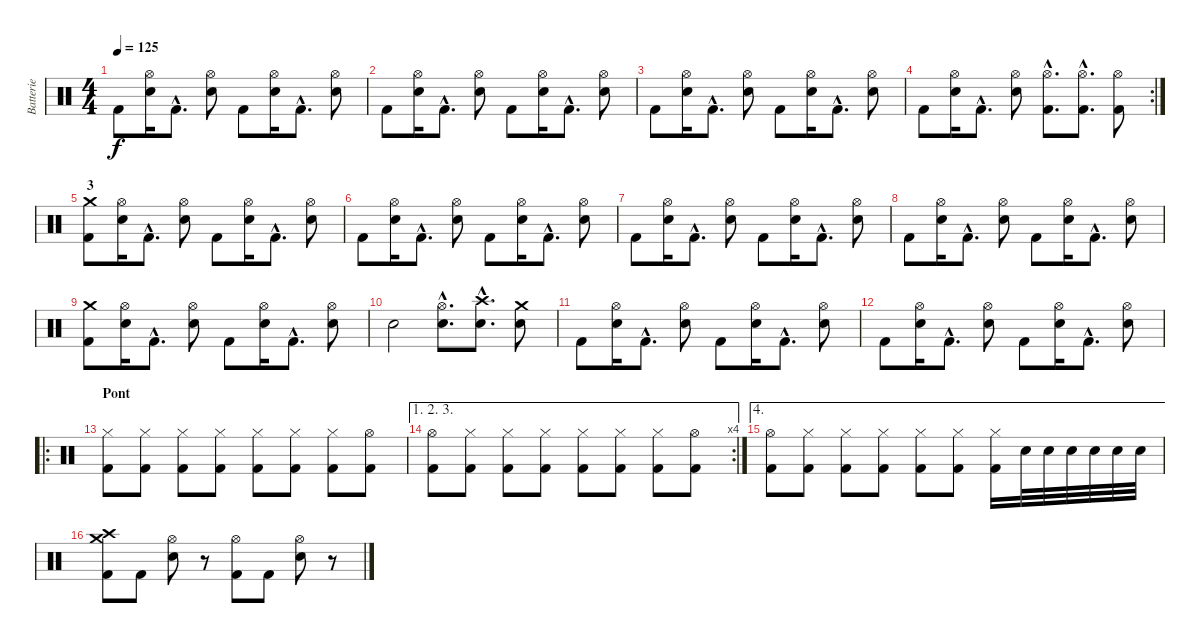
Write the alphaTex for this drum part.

\track ("Batterie" "Batterie") {instrument percussion}
\staff {score}
\articulation defaults
\ts (4 4)
\tempo 125
\clef neutral
\ks c "Kick (hit) 2".8{dy f}
("Hi-Hat (open)" "Electric Snare (hit)").16 "Kick (hit) 2"{hac}.8{d} ("Hi-Hat (open)" "Electric Snare (hit)").8 "Kick (hit) 2".8 ("Hi-Hat (open)" "Electric Snare (hit)").16 "Kick (hit) 2"{hac}.8{d} ("Hi-Hat (open)" "Electric Snare (hit)").8 |
"Kick (hit) 2".8 ("Hi-Hat (open)" "Electric Snare (hit)").16 "Kick (hit) 2"{hac}.8{d} ("Hi-Hat (open)" "Electric Snare (hit)").8 "Kick (hit) 2".8 ("Hi-Hat (open)" "Electric Snare (hit)").16 "Kick (hit) 2"{hac}.8{d} ("Hi-Hat (open)" "Electric Snare (hit)").8 |
"Kick (hit) 2".8 ("Hi-Hat (open)" "Electric Snare (hit)").16 "Kick (hit) 2"{hac}.8{d} ("Hi-Hat (open)" "Electric Snare (hit)").8 "Kick (hit) 2".8 ("Hi-Hat (open)" "Electric Snare (hit)").16 "Kick (hit) 2"{hac}.8{d} ("Hi-Hat (open)" "Electric Snare (hit)").8 |
\rc 2 "Kick (hit) 2".8
("Hi-Hat (open)" "Electric Snare (hit)").16 "Kick (hit) 2"{hac}.8{d} ("Hi-Hat (open)" "Electric Snare (hit)").8 ("Hi-Hat (open)"{hac} "Kick (hit) 2"{hac}).8{d} ("Hi-Hat (open)"{hac} "Kick (hit) 2"{hac}).8{d} ("Hi-Hat (open)" "Kick (hit) 2").8 |
\section ("" " 3")
("Crash medium (hit)" "Kick (hit) 2").8 ("Hi-Hat (open)" "Electric Snare (hit)").16 "Kick (hit) 2"{hac}.8{d} ("Hi-Hat (open)" "Electric Snare (hit)").8 "Kick (hit) 2".8 ("Hi-Hat (open)" "Electric Snare (hit)").16 "Kick (hit) 2"{hac}.8{d} ("Hi-Hat (open)" "Electric Snare (hit)").8 |
"Kick (hit) 2".8 ("Hi-Hat (open)" "Electric Snare (hit)").16 "Kick (hit) 2"{hac}.8{d} ("Hi-Hat (open)" "Electric Snare (hit)").8 "Kick (hit) 2".8 ("Hi-Hat (open)" "Electric Snare (hit)").16 "Kick (hit) 2"{hac}.8{d} ("Hi-Hat (open)" "Electric Snare (hit)").8 |
"Kick (hit) 2".8 ("Hi-Hat (open)" "Electric Snare (hit)").16 "Kick (hit) 2"{hac}.8{d} ("Hi-Hat (open)" "Electric Snare (hit)").8 "Kick (hit) 2".8 ("Hi-Hat (open)" "Electric Snare (hit)").16 "Kick (hit) 2"{hac}.8{d} ("Hi-Hat (open)" "Electric Snare (hit)").8 |
"Kick (hit) 2".8 ("Hi-Hat (open)" "Electric Snare (hit)").16 "Kick (hit) 2"{hac}.8{d} ("Hi-Hat (open)" "Electric Snare (hit)").8 "Kick (hit) 2".8 ("Hi-Hat (open)" "Electric Snare (hit)").16 "Kick (hit) 2"{hac}.8{d} ("Hi-Hat (open)" "Electric Snare (hit)").8 |
("Crash medium (hit)" "Kick (hit) 2").8 ("Hi-Hat (open)" "Electric Snare (hit)").16 "Kick (hit) 2"{hac}.8{d} ("Hi-Hat (open)" "Electric Snare (hit)").8 "Kick (hit) 2".8 ("Hi-Hat (open)" "Electric Snare (hit)").16 "Kick (hit) 2"{hac}.8{d} ("Hi-Hat (open)" "Electric Snare (hit)").8 |
"Electric Snare (hit)".2 ("Hi-Hat (open)"{hac} "Electric Snare (hit)"{hac}).8{d} ("Crash high (hit)"{hac} "Electric Snare (hit)"{hac}).8{d} ("Crash medium (hit)" "Electric Snare (hit)").8 |
"Kick (hit) 2".8 ("Hi-Hat (open)" "Electric Snare (hit)").16 "Kick (hit) 2"{hac}.8{d} ("Hi-Hat (open)" "Electric Snare (hit)").8 "Kick (hit) 2".8 ("Hi-Hat (open)" "Electric Snare (hit)").16 "Kick (hit) 2"{hac}.8{d} ("Hi-Hat (open)" "Electric Snare (hit)").8 |
"Kick (hit) 2".8 ("Hi-Hat (open)" "Electric Snare (hit)").16 "Kick (hit) 2"{hac}.8{d} ("Hi-Hat (open)" "Electric Snare (hit)").8 "Kick (hit) 2".8 ("Hi-Hat (open)" "Electric Snare (hit)").16 "Kick (hit) 2"{hac}.8{d} ("Hi-Hat (open)" "Electric Snare (hit)").8 |
\ro
\section ("" "Pont")
("Hi-Hat (closed)" "Kick (hit) 2").8 ("Hi-Hat (closed)" "Kick (hit) 2").8 ("Hi-Hat (closed)" "Kick (hit) 2").8 ("Hi-Hat (closed)" "Kick (hit) 2").8 ("Hi-Hat (closed)" "Kick (hit) 2").8 ("Hi-Hat (closed)" "Kick (hit) 2").8 ("Hi-Hat (closed)" "Kick (hit) 2").8 ("Hi-Hat (open)" "Kick (hit) 2").8 |
\ae (1 2 3)
\rc 4
("Hi-Hat (open)" "Kick (hit) 2").8 ("Hi-Hat (closed)" "Kick (hit) 2").8 ("Hi-Hat (closed)" "Kick (hit) 2").8 ("Hi-Hat (closed)" "Kick (hit) 2").8 ("Hi-Hat (closed)" "Kick (hit) 2").8 ("Hi-Hat (closed)" "Kick (hit) 2").8 ("Hi-Hat (closed)" "Kick (hit) 2").8 ("Hi-Hat (open)" "Kick (hit) 2").8 |
\ae 4
("Hi-Hat (open)" "Kick (hit) 2").8 ("Hi-Hat (closed)" "Kick (hit) 2").8 ("Hi-Hat (closed)" "Kick (hit) 2").8 ("Hi-Hat (closed)" "Kick (hit) 2").8 ("Hi-Hat (closed)" "Kick (hit) 2").8 ("Hi-Hat (closed)" "Kick (hit) 2").8 ("Hi-Hat (closed)" "Kick (hit) 2").16 "Electric Snare (hit)".32 "Electric Snare (hit)".32 "Electric Snare (hit)".32 "Electric Snare (hit)".32 "Electric Snare (hit)".32 "Electric Snare (hit)".32 |
("Crash medium (hit)" "Crash high (hit)" "Kick (hit) 2").8 "Kick (hit) 2".8 ("Hi-Hat (open)" "Electric Snare (hit)").8 r.8 ("Hi-Hat (open)" "Kick (hit) 2").8 "Kick (hit) 2".8 ("Hi-Hat (open)" "Electric Snare (hit)").8 r.8
